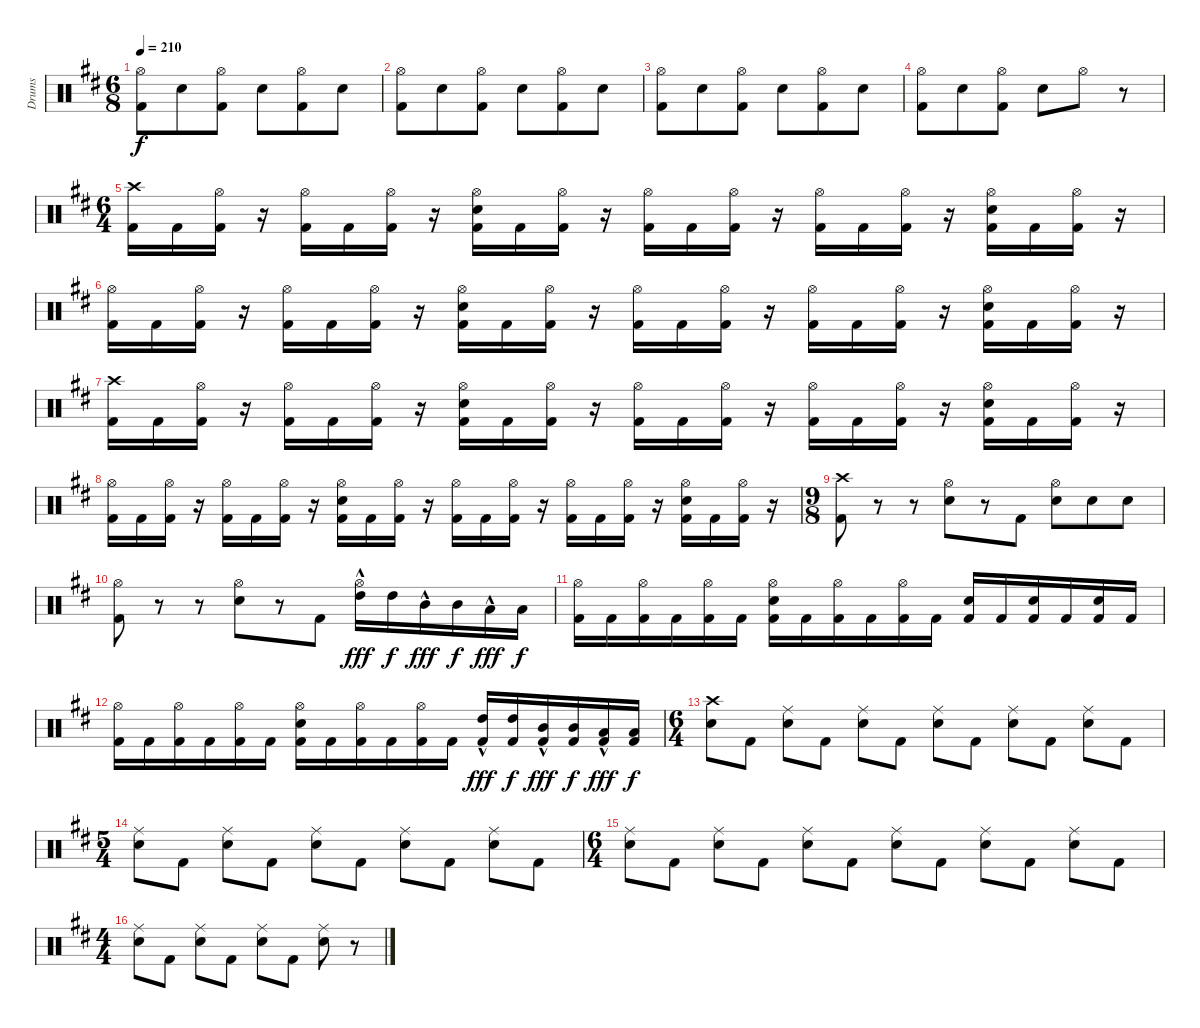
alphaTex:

\track ("Drums" "Drums") {instrument percussion}
\staff {score}
\articulation defaults
\ts (6 8)
\tempo 210
\clef neutral
\ks bminor
("Kick (hit) 2" "Hi-Hat (open)").8{dy f} "Electric Snare (hit)".8 ("Kick (hit) 2" "Hi-Hat (open)").8 "Electric Snare (hit)".8 ("Kick (hit) 2" "Hi-Hat (open)").8 "Electric Snare (hit)".8 |
("Kick (hit) 2" "Hi-Hat (open)").8 "Electric Snare (hit)".8 ("Kick (hit) 2" "Hi-Hat (open)").8 "Electric Snare (hit)".8 ("Kick (hit) 2" "Hi-Hat (open)").8 "Electric Snare (hit)".8 |
("Kick (hit) 2" "Hi-Hat (open)").8 "Electric Snare (hit)".8 ("Kick (hit) 2" "Hi-Hat (open)").8 "Electric Snare (hit)".8 ("Kick (hit) 2" "Hi-Hat (open)").8 "Electric Snare (hit)".8 |
("Kick (hit) 2" "Hi-Hat (open)").8 "Electric Snare (hit)".8 ("Kick (hit) 2" "Hi-Hat (open)").8 "Electric Snare (hit)".8 "Hi-Hat (open)".8 r.8 |
\ts (6 4)
("Kick (hit) 2" "Crash high (hit)").16 "Kick (hit) 2".16 ("Kick (hit) 2" "Hi-Hat (open)").16 r.16 ("Kick (hit) 2" "Hi-Hat (open)").16 "Kick (hit) 2".16 ("Kick (hit) 2" "Hi-Hat (open)").16 r.16 ("Kick (hit) 2" "Electric Snare (hit)" "Hi-Hat (open)").16 "Kick (hit) 2".16 ("Kick (hit) 2" "Hi-Hat (open)").16 r.16 ("Kick (hit) 2" "Hi-Hat (open)").16 "Kick (hit) 2".16 ("Kick (hit) 2" "Hi-Hat (open)").16 r.16 ("Kick (hit) 2" "Hi-Hat (open)").16 "Kick (hit) 2".16 ("Kick (hit) 2" "Hi-Hat (open)").16 r.16 ("Kick (hit) 2" "Electric Snare (hit)" "Hi-Hat (open)").16 "Kick (hit) 2".16 ("Kick (hit) 2" "Hi-Hat (open)").16 r.16 |
("Kick (hit) 2" "Hi-Hat (open)").16 "Kick (hit) 2".16 ("Kick (hit) 2" "Hi-Hat (open)").16 r.16 ("Kick (hit) 2" "Hi-Hat (open)").16 "Kick (hit) 2".16 ("Kick (hit) 2" "Hi-Hat (open)").16 r.16 ("Kick (hit) 2" "Electric Snare (hit)" "Hi-Hat (open)").16 "Kick (hit) 2".16 ("Kick (hit) 2" "Hi-Hat (open)").16 r.16 ("Kick (hit) 2" "Hi-Hat (open)").16 "Kick (hit) 2".16 ("Kick (hit) 2" "Hi-Hat (open)").16 r.16 ("Kick (hit) 2" "Hi-Hat (open)").16 "Kick (hit) 2".16 ("Kick (hit) 2" "Hi-Hat (open)").16 r.16 ("Kick (hit) 2" "Electric Snare (hit)" "Hi-Hat (open)").16 "Kick (hit) 2".16 ("Kick (hit) 2" "Hi-Hat (open)").16 r.16 |
("Kick (hit) 2" "Crash high (hit)").16 "Kick (hit) 2".16 ("Kick (hit) 2" "Hi-Hat (open)").16 r.16 ("Kick (hit) 2" "Hi-Hat (open)").16 "Kick (hit) 2".16 ("Kick (hit) 2" "Hi-Hat (open)").16 r.16 ("Kick (hit) 2" "Electric Snare (hit)" "Hi-Hat (open)").16 "Kick (hit) 2".16 ("Kick (hit) 2" "Hi-Hat (open)").16 r.16 ("Kick (hit) 2" "Hi-Hat (open)").16 "Kick (hit) 2".16 ("Kick (hit) 2" "Hi-Hat (open)").16 r.16 ("Kick (hit) 2" "Hi-Hat (open)").16 "Kick (hit) 2".16 ("Kick (hit) 2" "Hi-Hat (open)").16 r.16 ("Kick (hit) 2" "Electric Snare (hit)" "Hi-Hat (open)").16 "Kick (hit) 2".16 ("Kick (hit) 2" "Hi-Hat (open)").16 r.16 |
("Kick (hit) 2" "Hi-Hat (open)").16 "Kick (hit) 2".16 ("Kick (hit) 2" "Hi-Hat (open)").16 r.16 ("Kick (hit) 2" "Hi-Hat (open)").16 "Kick (hit) 2".16 ("Kick (hit) 2" "Hi-Hat (open)").16 r.16 ("Kick (hit) 2" "Electric Snare (hit)" "Hi-Hat (open)").16 "Kick (hit) 2".16 ("Kick (hit) 2" "Hi-Hat (open)").16 r.16 ("Kick (hit) 2" "Hi-Hat (open)").16 "Kick (hit) 2".16 ("Kick (hit) 2" "Hi-Hat (open)").16 r.16 ("Kick (hit) 2" "Hi-Hat (open)").16 "Kick (hit) 2".16 ("Kick (hit) 2" "Hi-Hat (open)").16 r.16 ("Kick (hit) 2" "Electric Snare (hit)" "Hi-Hat (open)").16 "Kick (hit) 2".16 ("Kick (hit) 2" "Hi-Hat (open)").16 r.16 |
\ts (9 8)
("Kick (hit) 2" "Crash high (hit)").8 r.8 r.8 ("Electric Snare (hit)" "Hi-Hat (open)").8 r.8 "Kick (hit) 2".8 ("Electric Snare (hit)" "Hi-Hat (open)").8 "Electric Snare (hit)".8 "Electric Snare (hit)".8 |
("Kick (hit) 2" "Hi-Hat (open)").8 r.8 r.8 ("Electric Snare (hit)" "Hi-Hat (open)").8 r.8 "Kick (hit) 2".8 ("Hi-Hat (open)" "High Tom (hit)"{hac}).16{dy fff} "High Tom (hit)".16{dy f} "Mid Tom (hit)"{hac}.16{dy fff} "Mid Tom (hit)".16{dy f} "Low Tom (hit)"{hac}.16{dy fff} "Low Tom (hit)".16{dy f} |
("Kick (hit) 2" "Hi-Hat (open)").16 "Kick (hit) 2".16 ("Kick (hit) 2" "Hi-Hat (open)").16 "Kick (hit) 2".16 ("Kick (hit) 2" "Hi-Hat (open)").16 "Kick (hit) 2".16 ("Kick (hit) 2" "Electric Snare (hit)" "Hi-Hat (open)").16 "Kick (hit) 2".16 ("Kick (hit) 2" "Hi-Hat (open)").16 "Kick (hit) 2".16 ("Kick (hit) 2" "Hi-Hat (open)").16 "Kick (hit) 2".16 ("Kick (hit) 2" "Electric Snare (hit)").16 "Kick (hit) 2".16 ("Kick (hit) 2" "Electric Snare (hit)").16 "Kick (hit) 2".16 ("Kick (hit) 2" "Electric Snare (hit)").16 "Kick (hit) 2".16 |
("Kick (hit) 2" "Hi-Hat (open)").16 "Kick (hit) 2".16 ("Kick (hit) 2" "Hi-Hat (open)").16 "Kick (hit) 2".16 ("Kick (hit) 2" "Hi-Hat (open)").16 "Kick (hit) 2".16 ("Kick (hit) 2" "Electric Snare (hit)" "Hi-Hat (open)").16 "Kick (hit) 2".16 ("Kick (hit) 2" "Hi-Hat (open)").16 "Kick (hit) 2".16 ("Kick (hit) 2" "Hi-Hat (open)").16 "Kick (hit) 2".16 ("Kick (hit) 2" "High Tom (hit)"{hac}).16{dy fff} ("Kick (hit) 2" "High Tom (hit)").16{dy f} ("Kick (hit) 2" "Mid Tom (hit)"{hac}).16{dy fff} ("Kick (hit) 2" "Mid Tom (hit)").16{dy f} ("Kick (hit) 2" "Low Tom (hit)"{hac}).16{dy fff} ("Kick (hit) 2" "Low Tom (hit)").16{dy f} |
\ts (6 4)
("Electric Snare (hit)" "Crash high (hit)").8 "Kick (hit) 2".8 ("Electric Snare (hit)" "Ride (middle)").8 "Kick (hit) 2".8 ("Electric Snare (hit)" "Ride (middle)").8 "Kick (hit) 2".8 ("Electric Snare (hit)" "Ride (middle)").8 "Kick (hit) 2".8 ("Electric Snare (hit)" "Ride (middle)").8 "Kick (hit) 2".8 ("Electric Snare (hit)" "Ride (middle)").8 "Kick (hit) 2".8 |
\ts (5 4)
("Electric Snare (hit)" "Ride (middle)").8 "Kick (hit) 2".8 ("Electric Snare (hit)" "Ride (middle)").8 "Kick (hit) 2".8 ("Electric Snare (hit)" "Ride (middle)").8 "Kick (hit) 2".8 ("Electric Snare (hit)" "Ride (middle)").8 "Kick (hit) 2".8 ("Electric Snare (hit)" "Ride (middle)").8 "Kick (hit) 2".8 |
\ts (6 4)
("Electric Snare (hit)" "Ride (middle)").8 "Kick (hit) 2".8 ("Electric Snare (hit)" "Ride (middle)").8 "Kick (hit) 2".8 ("Electric Snare (hit)" "Ride (middle)").8 "Kick (hit) 2".8 ("Electric Snare (hit)" "Ride (middle)").8 "Kick (hit) 2".8 ("Electric Snare (hit)" "Ride (middle)").8 "Kick (hit) 2".8 ("Electric Snare (hit)" "Ride (middle)").8 "Kick (hit) 2".8 |
\ts (4 4)
("Electric Snare (hit)" "Ride (middle)").8 "Kick (hit) 2".8 ("Electric Snare (hit)" "Ride (middle)").8 "Kick (hit) 2".8 ("Electric Snare (hit)" "Ride (middle)").8 "Kick (hit) 2".8 ("Electric Snare (hit)" "Ride (middle)").8 r.8
